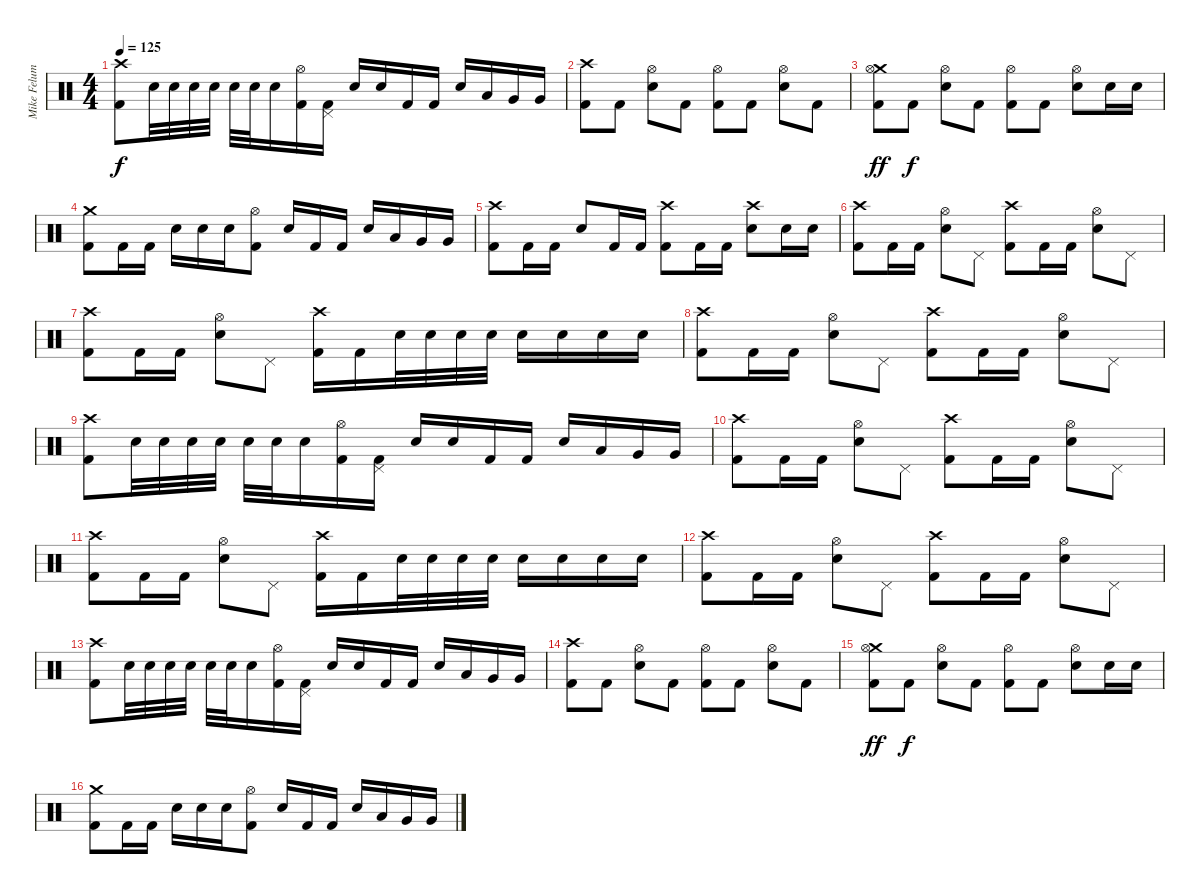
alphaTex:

\track ("Mike Felumlee" "Mike Felum") {instrument percussion}
\staff {score}
\articulation defaults
\ts (4 4)
\tempo 125
\clef neutral
\ks c
("Crash high (hit)" "Kick (hit) 2").8{dy f} "Electric Snare (hit)".32 "Electric Snare (hit)".32 "Electric Snare (hit)".32 "Electric Snare (hit)".32 "Electric Snare (hit)".32 "Electric Snare (hit)".32 "Electric Snare (hit)".16 ("Hi-Hat (open)" "Kick (hit) 2").16 ("Pedal Hi-Hat (hit)" "Kick (hit) 2").16 "Electric Snare (hit)".16 "Electric Snare (hit)".16 "Kick (hit) 2".16 "Kick (hit) 2".16 "Electric Snare (hit)".16 "Low Tom (hit)".16 "Very Low Tom (hit)".16 "Very Low Tom (hit)".16 |
("Crash high (hit)" "Kick (hit) 2").8 "Kick (hit) 2".8 ("Hi-Hat (open)" "Electric Snare (hit)").8 "Kick (hit) 2".8 ("Hi-Hat (open)" "Kick (hit) 2").8 "Kick (hit) 2".8 ("Hi-Hat (open)" "Electric Snare (hit)").8 "Kick (hit) 2".8 |
("Crash medium (hit)" "Hi-Hat (open)" "Kick (hit) 2").8{dy ff} "Kick (hit) 2".8{dy f} ("Hi-Hat (open)" "Electric Snare (hit)").8 "Kick (hit) 2".8 ("Hi-Hat (open)" "Kick (hit) 2").8 "Kick (hit) 2".8 ("Hi-Hat (open)" "Electric Snare (hit)").8 "Electric Snare (hit)".16 "Electric Snare (hit)".16 |
("Crash medium (hit)" "Kick (hit) 2").8 "Kick (hit) 2".16 "Kick (hit) 2".16 "Electric Snare (hit)".16 "Electric Snare (hit)".16 "Electric Snare (hit)".16 ("Hi-Hat (open)" "Kick (hit) 2").8 "Electric Snare (hit)".16 "Kick (hit) 2".16 "Kick (hit) 2".16 "Electric Snare (hit)".16 "Low Tom (hit)".16 "Very Low Tom (hit)".16 "Very Low Tom (hit)".16 |
("Crash high (hit)" "Kick (hit) 2").8 "Kick (hit) 2".16 "Kick (hit) 2".16 "Electric Snare (hit)".8 "Kick (hit) 2".16 "Kick (hit) 2".16 ("Crash high (hit)" "Kick (hit) 2").8 "Kick (hit) 2".16 "Kick (hit) 2".16 ("Crash high (hit)" "Electric Snare (hit)").8 "Electric Snare (hit)".16 "Electric Snare (hit)".16 |
("Crash high (hit)" "Kick (hit) 2").8 "Kick (hit) 2".16 "Kick (hit) 2".16 ("Hi-Hat (open)" "Electric Snare (hit)").8 "Pedal Hi-Hat (hit)".8 ("Crash high (hit)" "Kick (hit) 2").8 "Kick (hit) 2".16 "Kick (hit) 2".16 ("Hi-Hat (open)" "Electric Snare (hit)").8 "Pedal Hi-Hat (hit)".8 |
("Crash high (hit)" "Kick (hit) 2").8 "Kick (hit) 2".16 "Kick (hit) 2".16 ("Hi-Hat (open)" "Electric Snare (hit)").8 "Pedal Hi-Hat (hit)".8 ("Crash high (hit)" "Kick (hit) 2").16 "Kick (hit) 2".16 "Electric Snare (hit)".32 "Electric Snare (hit)".32 "Electric Snare (hit)".32 "Electric Snare (hit)".32 "Electric Snare (hit)".16 "Electric Snare (hit)".16 "Electric Snare (hit)".16 "Electric Snare (hit)".16 |
("Crash high (hit)" "Kick (hit) 2").8 "Kick (hit) 2".16 "Kick (hit) 2".16 ("Hi-Hat (open)" "Electric Snare (hit)").8 "Pedal Hi-Hat (hit)".8 ("Crash high (hit)" "Kick (hit) 2").8 "Kick (hit) 2".16 "Kick (hit) 2".16 ("Hi-Hat (open)" "Electric Snare (hit)").8 "Pedal Hi-Hat (hit)".8 |
("Crash high (hit)" "Kick (hit) 2").8 "Electric Snare (hit)".32 "Electric Snare (hit)".32 "Electric Snare (hit)".32 "Electric Snare (hit)".32 "Electric Snare (hit)".32 "Electric Snare (hit)".32 "Electric Snare (hit)".16 ("Hi-Hat (open)" "Kick (hit) 2").16 ("Pedal Hi-Hat (hit)" "Kick (hit) 2").16 "Electric Snare (hit)".16 "Electric Snare (hit)".16 "Kick (hit) 2".16 "Kick (hit) 2".16 "Electric Snare (hit)".16 "Low Tom (hit)".16 "Very Low Tom (hit)".16 "Very Low Tom (hit)".16 |
("Crash high (hit)" "Kick (hit) 2").8 "Kick (hit) 2".16 "Kick (hit) 2".16 ("Hi-Hat (open)" "Electric Snare (hit)").8 "Pedal Hi-Hat (hit)".8 ("Crash high (hit)" "Kick (hit) 2").8 "Kick (hit) 2".16 "Kick (hit) 2".16 ("Hi-Hat (open)" "Electric Snare (hit)").8 "Pedal Hi-Hat (hit)".8 |
("Crash high (hit)" "Kick (hit) 2").8 "Kick (hit) 2".16 "Kick (hit) 2".16 ("Hi-Hat (open)" "Electric Snare (hit)").8 "Pedal Hi-Hat (hit)".8 ("Crash high (hit)" "Kick (hit) 2").16 "Kick (hit) 2".16 "Electric Snare (hit)".32 "Electric Snare (hit)".32 "Electric Snare (hit)".32 "Electric Snare (hit)".32 "Electric Snare (hit)".16 "Electric Snare (hit)".16 "Electric Snare (hit)".16 "Electric Snare (hit)".16 |
("Crash high (hit)" "Kick (hit) 2").8 "Kick (hit) 2".16 "Kick (hit) 2".16 ("Hi-Hat (open)" "Electric Snare (hit)").8 "Pedal Hi-Hat (hit)".8 ("Crash high (hit)" "Kick (hit) 2").8 "Kick (hit) 2".16 "Kick (hit) 2".16 ("Hi-Hat (open)" "Electric Snare (hit)").8 "Pedal Hi-Hat (hit)".8 |
("Crash high (hit)" "Kick (hit) 2").8 "Electric Snare (hit)".32 "Electric Snare (hit)".32 "Electric Snare (hit)".32 "Electric Snare (hit)".32 "Electric Snare (hit)".32 "Electric Snare (hit)".32 "Electric Snare (hit)".16 ("Hi-Hat (open)" "Kick (hit) 2").16 ("Pedal Hi-Hat (hit)" "Kick (hit) 2").16 "Electric Snare (hit)".16 "Electric Snare (hit)".16 "Kick (hit) 2".16 "Kick (hit) 2".16 "Electric Snare (hit)".16 "Low Tom (hit)".16 "Very Low Tom (hit)".16 "Very Low Tom (hit)".16 |
("Crash high (hit)" "Kick (hit) 2").8 "Kick (hit) 2".8 ("Hi-Hat (open)" "Electric Snare (hit)").8 "Kick (hit) 2".8 ("Hi-Hat (open)" "Kick (hit) 2").8 "Kick (hit) 2".8 ("Hi-Hat (open)" "Electric Snare (hit)").8 "Kick (hit) 2".8 |
("Crash medium (hit)" "Hi-Hat (open)" "Kick (hit) 2").8{dy ff} "Kick (hit) 2".8{dy f} ("Hi-Hat (open)" "Electric Snare (hit)").8 "Kick (hit) 2".8 ("Hi-Hat (open)" "Kick (hit) 2").8 "Kick (hit) 2".8 ("Hi-Hat (open)" "Electric Snare (hit)").8 "Electric Snare (hit)".16 "Electric Snare (hit)".16 |
("Crash medium (hit)" "Kick (hit) 2").8 "Kick (hit) 2".16 "Kick (hit) 2".16 "Electric Snare (hit)".16 "Electric Snare (hit)".16 "Electric Snare (hit)".16 ("Hi-Hat (open)" "Kick (hit) 2").8 "Electric Snare (hit)".16 "Kick (hit) 2".16 "Kick (hit) 2".16 "Electric Snare (hit)".16 "Low Tom (hit)".16 "Very Low Tom (hit)".16 "Very Low Tom (hit)".16
